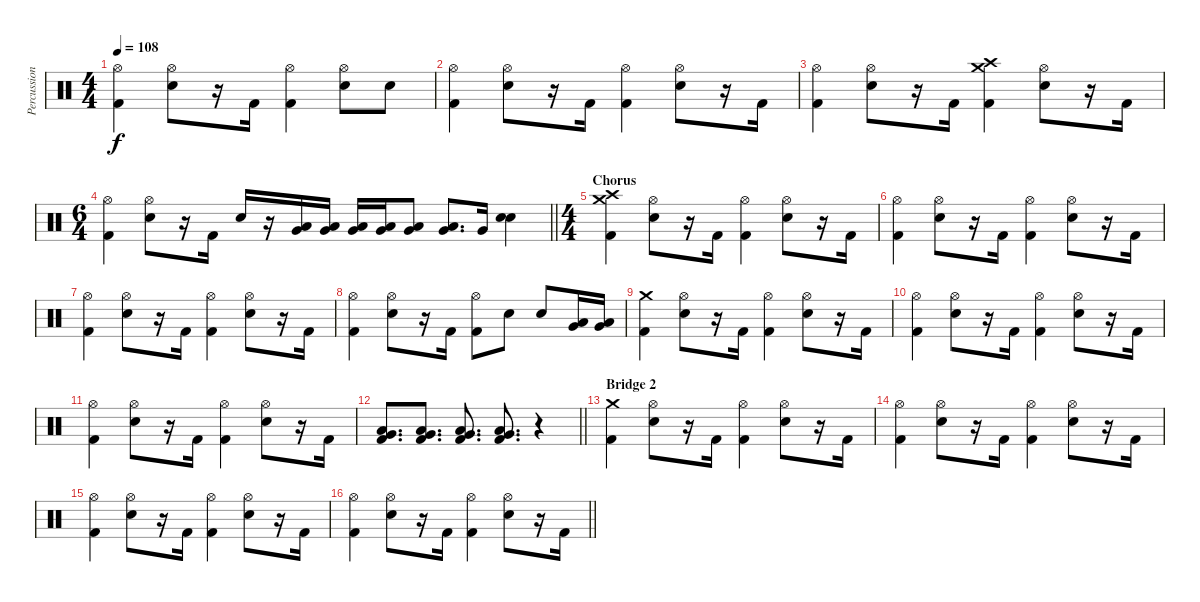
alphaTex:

\track ("Percussion" "Percussion") {instrument percussion}
\staff {score}
\articulation defaults
\ts (4 4)
\tempo 108
\clef neutral
\ks c
("Hi-Hat (open)" "Kick (hit) 2").4{dy f} ("Hi-Hat (open)" "Snare (hit) 2").8 r.16 "Kick (hit) 2".16 ("Hi-Hat (open)" "Kick (hit) 2").4 ("Hi-Hat (open)" "Snare (hit) 2").8 "Snare (hit) 2".8 |
("Hi-Hat (open)" "Kick (hit) 2").4 ("Hi-Hat (open)" "Snare (hit) 2").8 r.16 "Kick (hit) 2".16 ("Hi-Hat (open)" "Kick (hit) 2").4 ("Hi-Hat (open)" "Snare (hit) 2").8 r.16 "Kick (hit) 2".16 |
("Hi-Hat (open)" "Kick (hit) 2").4 ("Hi-Hat (open)" "Snare (hit) 2").8 r.16 "Kick (hit) 2".16 ("Kick (hit) 2" "Crash high (hit)" "Crash medium (hit)").4 ("Hi-Hat (open)" "Snare (hit) 2").8 r.16 "Kick (hit) 2".16 |
\ts (6 4)
\barLineRight lightlight
("Hi-Hat (open)" "Kick (hit) 2").4 ("Hi-Hat (open)" "Snare (hit) 2").8 r.16 "Kick (hit) 2".16 "Snare (hit) 2".16 r.16 ("Low Tom (hit)" "Very Low Tom (hit)").16 ("Low Tom (hit)" "Very Low Tom (hit)").16 ("Low Tom (hit)" "Very Low Tom (hit)").16 ("Low Tom (hit)" "Very Low Tom (hit)").16 ("Low Tom (hit)" "Very Low Tom (hit)").8 ("Low Tom (hit)" "Very Low Tom (hit)").8{d} "Very Low Tom (hit)".16 ("Snare (hit) 2" "Snare (hit) 2").4 |
\ts (4 4)
\section ("" "Chorus")
("Kick (hit) 2" "Crash medium (hit)" "Crash high (hit)").4 ("Hi-Hat (open)" "Snare (hit) 2").8 r.16 "Kick (hit) 2".16 ("Hi-Hat (open)" "Kick (hit) 2").4 ("Hi-Hat (open)" "Snare (hit) 2").8 r.16 "Kick (hit) 2".16 |
("Hi-Hat (open)" "Kick (hit) 2").4 ("Hi-Hat (open)" "Snare (hit) 2").8 r.16 "Kick (hit) 2".16 ("Hi-Hat (open)" "Kick (hit) 2").4 ("Hi-Hat (open)" "Snare (hit) 2").8 r.16 "Kick (hit) 2".16 |
("Hi-Hat (open)" "Kick (hit) 2").4 ("Hi-Hat (open)" "Snare (hit) 2").8 r.16 "Kick (hit) 2".16 ("Hi-Hat (open)" "Kick (hit) 2").4 ("Hi-Hat (open)" "Snare (hit) 2").8 r.16 "Kick (hit) 2".16 |
("Hi-Hat (open)" "Kick (hit) 2").4 ("Hi-Hat (open)" "Snare (hit) 2").8 r.16 "Kick (hit) 2".16 ("Hi-Hat (open)" "Kick (hit) 2").8 "Snare (hit) 2".8 "Snare (hit) 2".8 ("Low Tom (hit)" "Very Low Tom (hit)").16 ("Low Tom (hit)" "Very Low Tom (hit)").16 |
("Kick (hit) 2" "Crash medium (hit)").4 ("Hi-Hat (open)" "Snare (hit) 2").8 r.16 "Kick (hit) 2".16 ("Hi-Hat (open)" "Kick (hit) 2").4 ("Hi-Hat (open)" "Snare (hit) 2").8 r.16 "Kick (hit) 2".16 |
("Hi-Hat (open)" "Kick (hit) 2").4 ("Hi-Hat (open)" "Snare (hit) 2").8 r.16 "Kick (hit) 2".16 ("Hi-Hat (open)" "Kick (hit) 2").4 ("Hi-Hat (open)" "Snare (hit) 2").8 r.16 "Kick (hit) 2".16 |
("Hi-Hat (open)" "Kick (hit) 2").4 ("Hi-Hat (open)" "Snare (hit) 2").8 r.16 "Kick (hit) 2".16 ("Hi-Hat (open)" "Kick (hit) 2").4 ("Hi-Hat (open)" "Snare (hit) 2").8 r.16 "Kick (hit) 2".16 |
\barLineRight lightlight
("Kick (hit) 2" "Very Low Tom (hit)" "Low Tom (hit)").8{d} ("Kick (hit) 2" "Very Low Tom (hit)" "Low Tom (hit)").8{d} ("Kick (hit) 2" "Very Low Tom (hit)" "Low Tom (hit)").8{d} ("Kick (hit) 2" "Very Low Tom (hit)" "Low Tom (hit)").8{d} r.4 |
\section ("" "Bridge 2")
("Kick (hit) 2" "Crash medium (hit)").4 ("Hi-Hat (open)" "Snare (hit) 2").8 r.16 "Kick (hit) 2".16 ("Hi-Hat (open)" "Kick (hit) 2").4 ("Hi-Hat (open)" "Snare (hit) 2").8 r.16 "Kick (hit) 2".16 |
("Hi-Hat (open)" "Kick (hit) 2").4 ("Hi-Hat (open)" "Snare (hit) 2").8 r.16 "Kick (hit) 2".16 ("Hi-Hat (open)" "Kick (hit) 2").4 ("Hi-Hat (open)" "Snare (hit) 2").8 r.16 "Kick (hit) 2".16 |
("Hi-Hat (open)" "Kick (hit) 2").4 ("Hi-Hat (open)" "Snare (hit) 2").8 r.16 "Kick (hit) 2".16 ("Hi-Hat (open)" "Kick (hit) 2").4 ("Hi-Hat (open)" "Snare (hit) 2").8 r.16 "Kick (hit) 2".16 |
\barLineRight lightlight
("Hi-Hat (open)" "Kick (hit) 2").4 ("Hi-Hat (open)" "Snare (hit) 2").8 r.16 "Kick (hit) 2".16 ("Hi-Hat (open)" "Kick (hit) 2").4 ("Hi-Hat (open)" "Snare (hit) 2").8 r.16 "Kick (hit) 2".16
